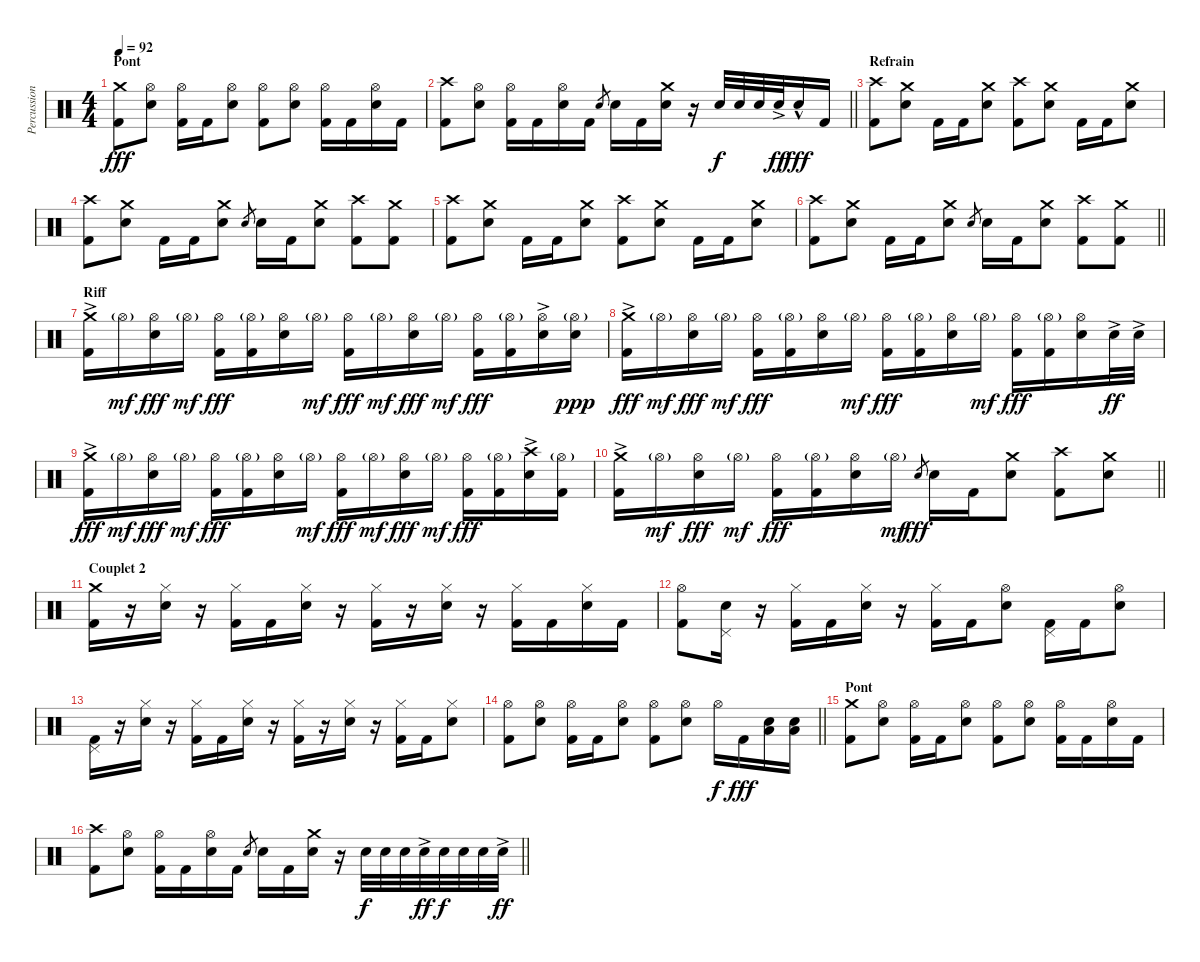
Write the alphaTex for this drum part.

\track ("Percussions" "Percussion") {instrument percussion}
\staff {score}
\articulation defaults
\ts (4 4)
\section ("" "Pont")
\tempo 92
\clef neutral
\ks c
("Crash medium (hit)" "Kick (hit) 2").8{dy fff} ("Hi-Hat (open)" "Electric Snare (hit)").8 ("Hi-Hat (open)" "Kick (hit) 2").16 "Kick (hit) 2".16 ("Hi-Hat (open)" "Electric Snare (hit)").8 ("Hi-Hat (open)" "Kick (hit) 2").8 ("Hi-Hat (open)" "Electric Snare (hit)").8 ("Hi-Hat (open)" "Kick (hit) 2").16 "Kick (hit) 2".16 ("Hi-Hat (open)" "Electric Snare (hit)").16 "Kick (hit) 2".16 |
\barLineRight lightlight
("Crash high (hit)" "Kick (hit) 2").8 ("Hi-Hat (open)" "Electric Snare (hit)").8 ("Hi-Hat (open)" "Kick (hit) 2").16 "Kick (hit) 2".16 ("Hi-Hat (open)" "Electric Snare (hit)").16 "Kick (hit) 2".16 "Electric Snare (hit)".8{gr} "Electric Snare (hit)".16 "Kick (hit) 2".16 ("Crash medium (hit)" "Electric Snare (hit)").16 r.16 "Electric Snare (hit)".32{dy f} "Electric Snare (hit)".32 "Electric Snare (hit)".32 "Electric Snare (hit)"{ac}.32{dy ff} "Electric Snare (hit)"{hac}.16{dy fff} "Kick (hit) 2".16 |
\section ("" "Refrain")
("Crash high (hit)" "Kick (hit) 2").8 ("Crash medium (hit)" "Electric Snare (hit)").8 "Kick (hit) 2".16 "Kick (hit) 2".16 ("Crash medium (hit)" "Electric Snare (hit)").8 ("Crash high (hit)" "Kick (hit) 2").8 ("Crash medium (hit)" "Electric Snare (hit)").8 "Kick (hit) 2".16 "Kick (hit) 2".16 ("Crash medium (hit)" "Electric Snare (hit)").8 |
("Crash high (hit)" "Kick (hit) 2").8 ("Crash medium (hit)" "Electric Snare (hit)").8 "Kick (hit) 2".16 "Kick (hit) 2".16 ("Crash medium (hit)" "Electric Snare (hit)").8 "Electric Snare (hit)".8{gr} "Electric Snare (hit)".16 "Kick (hit) 2".16 ("Crash medium (hit)" "Electric Snare (hit)").8 ("Crash high (hit)" "Kick (hit) 2").8 ("Crash medium (hit)" "Kick (hit) 2").8 |
("Crash high (hit)" "Kick (hit) 2").8 ("Crash medium (hit)" "Electric Snare (hit)").8 "Kick (hit) 2".16 "Kick (hit) 2".16 ("Crash medium (hit)" "Electric Snare (hit)").8 ("Crash high (hit)" "Kick (hit) 2").8 ("Crash medium (hit)" "Electric Snare (hit)").8 "Kick (hit) 2".16 "Kick (hit) 2".16 ("Crash medium (hit)" "Electric Snare (hit)").8 |
\barLineRight lightlight
("Crash high (hit)" "Kick (hit) 2").8 ("Crash medium (hit)" "Electric Snare (hit)").8 "Kick (hit) 2".16 "Kick (hit) 2".16 ("Crash medium (hit)" "Electric Snare (hit)").8 "Electric Snare (hit)".8{gr} "Electric Snare (hit)".16 "Kick (hit) 2".16 ("Crash medium (hit)" "Electric Snare (hit)").8 ("Crash high (hit)" "Kick (hit) 2").8 ("Crash medium (hit)" "Kick (hit) 2").8 |
\section ("" "Riff")
("Crash medium (hit)"{ac} "Kick (hit) 2").16 "Hi-Hat (open)"{g}.16{dy mf} ("Hi-Hat (open)" "Electric Snare (hit)").16{dy fff} "Hi-Hat (open)"{g}.16{dy mf} ("Hi-Hat (open)" "Kick (hit) 2").16{dy fff} ("Hi-Hat (open)"{g} "Kick (hit) 2").16 ("Hi-Hat (open)" "Electric Snare (hit)").16 "Hi-Hat (open)"{g}.16{dy mf} ("Hi-Hat (open)" "Kick (hit) 2").16{dy fff} "Hi-Hat (open)"{g}.16{dy mf} ("Hi-Hat (open)" "Electric Snare (hit)").16{dy fff} "Hi-Hat (open)"{g}.16{dy mf} ("Hi-Hat (open)" "Kick (hit) 2").16{dy fff} ("Hi-Hat (open)"{g} "Kick (hit) 2").16 ("Hi-Hat (open)"{ac} "Electric Snare (hit)").16 ("Hi-Hat (open)"{g} "Electric Snare (hit)").16{dy ppp} |
("Crash medium (hit)"{ac} "Kick (hit) 2").16{dy fff} "Hi-Hat (open)"{g}.16{dy mf} ("Hi-Hat (open)" "Electric Snare (hit)").16{dy fff} "Hi-Hat (open)"{g}.16{dy mf} ("Hi-Hat (open)" "Kick (hit) 2").16{dy fff} ("Hi-Hat (open)"{g} "Kick (hit) 2").16 ("Hi-Hat (open)" "Electric Snare (hit)").16 "Hi-Hat (open)"{g}.16{dy mf} ("Hi-Hat (open)" "Kick (hit) 2").16{dy fff} ("Hi-Hat (open)"{g} "Kick (hit) 2").16 ("Hi-Hat (open)" "Electric Snare (hit)").16 "Hi-Hat (open)"{g}.16{dy mf} ("Hi-Hat (open)" "Kick (hit) 2").16{dy fff} ("Hi-Hat (open)"{g} "Kick (hit) 2").16 ("Hi-Hat (open)" "Electric Snare (hit)").16 "Electric Snare (hit)"{ac}.32{dy ff} "Electric Snare (hit)"{ac}.32 |
("Crash medium (hit)"{ac} "Kick (hit) 2").16{dy fff} "Hi-Hat (open)"{g}.16{dy mf} ("Hi-Hat (open)" "Electric Snare (hit)").16{dy fff} "Hi-Hat (open)"{g}.16{dy mf} ("Hi-Hat (open)" "Kick (hit) 2").16{dy fff} ("Hi-Hat (open)"{g} "Kick (hit) 2").16 ("Hi-Hat (open)" "Electric Snare (hit)").16 "Hi-Hat (open)"{g}.16{dy mf} ("Hi-Hat (open)" "Kick (hit) 2").16{dy fff} "Hi-Hat (open)"{g}.16{dy mf} ("Hi-Hat (open)" "Electric Snare (hit)").16{dy fff} "Hi-Hat (open)"{g}.16{dy mf} ("Hi-Hat (open)" "Kick (hit) 2").16{dy fff} ("Hi-Hat (open)"{g} "Kick (hit) 2").16 ("Crash high (hit)"{ac} "Electric Snare (hit)").16 ("Hi-Hat (open)"{g} "Kick (hit) 2").16 |
\barLineRight lightlight
("Crash medium (hit)"{ac} "Kick (hit) 2").16 "Hi-Hat (open)"{g}.16{dy mf} ("Hi-Hat (open)" "Electric Snare (hit)").16{dy fff} "Hi-Hat (open)"{g}.16{dy mf} ("Hi-Hat (open)" "Kick (hit) 2").16{dy fff} ("Hi-Hat (open)"{g} "Kick (hit) 2").16 ("Hi-Hat (open)" "Electric Snare (hit)").16 "Hi-Hat (open)"{g}.16{dy mf} "Electric Snare (hit)".8{gr dy fff} "Electric Snare (hit)".16 "Kick (hit) 2".16 ("Crash medium (hit)" "Electric Snare (hit)").8 ("Crash high (hit)" "Kick (hit) 2").8 ("Crash medium (hit)" "Electric Snare (hit)").8 |
\section ("" "Couplet 2")
("Crash medium (hit)" "Kick (hit) 2").16 r.16 ("Hi-Hat (closed)" "Electric Snare (hit)").16 r.16 ("Hi-Hat (closed)" "Kick (hit) 2").16 "Kick (hit) 2".16 ("Hi-Hat (closed)" "Electric Snare (hit)").16 r.16 ("Hi-Hat (closed)" "Kick (hit) 2").16 r.16 ("Hi-Hat (closed)" "Electric Snare (hit)").16 r.16 ("Hi-Hat (closed)" "Kick (hit) 2").16 "Kick (hit) 2".16 ("Hi-Hat (closed)" "Electric Snare (hit)").16 "Kick (hit) 2".16 |
("Hi-Hat (open)" "Kick (hit) 2").8 ("Electric Snare (hit)" "Pedal Hi-Hat (hit)").16 r.16 ("Hi-Hat (closed)" "Kick (hit) 2").16 "Kick (hit) 2".16 ("Hi-Hat (closed)" "Electric Snare (hit)").16 r.16 ("Hi-Hat (closed)" "Kick (hit) 2").16 "Kick (hit) 2".16 ("Hi-Hat (open)" "Electric Snare (hit)").8 ("Pedal Hi-Hat (hit)" "Kick (hit) 2").16 "Kick (hit) 2".16 ("Hi-Hat (open)" "Electric Snare (hit)").8 |
("Pedal Hi-Hat (hit)" "Kick (hit) 2").16 r.16 ("Hi-Hat (closed)" "Electric Snare (hit)").16 r.16 ("Hi-Hat (closed)" "Kick (hit) 2").16 "Kick (hit) 2".16 ("Hi-Hat (closed)" "Electric Snare (hit)").16 r.16 ("Hi-Hat (closed)" "Kick (hit) 2").16 r.16 ("Hi-Hat (closed)" "Electric Snare (hit)").16 r.16 ("Hi-Hat (closed)" "Kick (hit) 2").16 "Kick (hit) 2".16 ("Hi-Hat (closed)" "Electric Snare (hit)").8 |
\barLineRight lightlight
("Hi-Hat (open)" "Kick (hit) 2").8 ("Hi-Hat (open)" "Electric Snare (hit)").8 ("Hi-Hat (open)" "Kick (hit) 2").16 "Kick (hit) 2".16 ("Hi-Hat (open)" "Electric Snare (hit)").8 ("Hi-Hat (open)" "Kick (hit) 2").8 ("Hi-Hat (open)" "Electric Snare (hit)").8 "Hi-Hat (open)".16{dy f} "Kick (hit) 2".16{dy fff} ("Electric Snare (hit)" "Low Floor Tom (hit)").16 ("Electric Snare (hit)" "Low Floor Tom (hit)").16 |
\section ("" "Pont")
("Crash medium (hit)" "Kick (hit) 2").8 ("Hi-Hat (open)" "Electric Snare (hit)").8 ("Hi-Hat (open)" "Kick (hit) 2").16 "Kick (hit) 2".16 ("Hi-Hat (open)" "Electric Snare (hit)").8 ("Hi-Hat (open)" "Kick (hit) 2").8 ("Hi-Hat (open)" "Electric Snare (hit)").8 ("Hi-Hat (open)" "Kick (hit) 2").16 "Kick (hit) 2".16 ("Hi-Hat (open)" "Electric Snare (hit)").16 "Kick (hit) 2".16 |
\barLineRight lightlight
("Crash high (hit)" "Kick (hit) 2").8 ("Hi-Hat (open)" "Electric Snare (hit)").8 ("Hi-Hat (open)" "Kick (hit) 2").16 "Kick (hit) 2".16 ("Hi-Hat (open)" "Electric Snare (hit)").16 "Kick (hit) 2".16 "Electric Snare (hit)".8{gr} "Electric Snare (hit)".16 "Kick (hit) 2".16 ("Crash medium (hit)" "Electric Snare (hit)").16 r.16 "Electric Snare (hit)".32{dy f} "Electric Snare (hit)".32 "Electric Snare (hit)".32 "Electric Snare (hit)"{ac}.32{dy ff} "Electric Snare (hit)".32{dy f} "Electric Snare (hit)".32 "Electric Snare (hit)".32 "Electric Snare (hit)"{ac}.32{dy ff}
